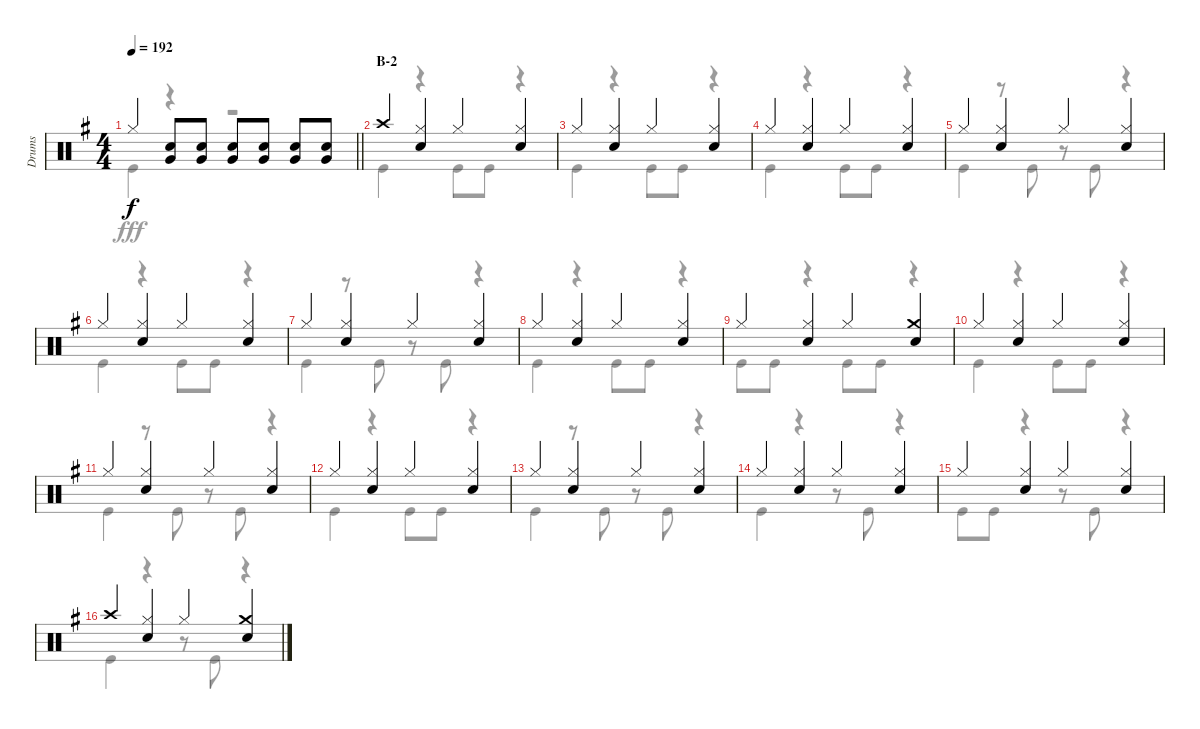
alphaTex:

\track ("Drums" "Drums") {instrument percussion}
\staff {score}
\articulation defaults
\voice
\ts (4 4)
\tempo 192
\clef neutral
\barLineRight lightlight
\ks g "Hi-Hat (closed)".4{dy f}
("Snare (hit) 2" "Very Low Tom (hit)").8 ("Snare (hit) 2" "Very Low Tom (hit)").8 ("Snare (hit) 2" "Very Low Tom (hit)").8 ("Snare (hit) 2" "Very Low Tom (hit)").8 ("Snare (hit) 2" "Very Low Tom (hit)").8 ("Snare (hit) 2" "Very Low Tom (hit)").8 |
\section ("" "B-2")
"Crash high (hit)".4 ("Hi-Hat (closed)" "Snare (hit) 2").4 "Hi-Hat (closed)".4 ("Hi-Hat (closed)" "Snare (hit) 2").4 |
"Hi-Hat (closed)".4 ("Hi-Hat (closed)" "Snare (hit) 2").4 "Hi-Hat (closed)".4 ("Hi-Hat (closed)" "Snare (hit) 2").4 |
"Hi-Hat (closed)".4 ("Hi-Hat (closed)" "Snare (hit) 2").4 "Hi-Hat (closed)".4 ("Hi-Hat (closed)" "Snare (hit) 2").4 |
"Hi-Hat (closed)".4 ("Hi-Hat (closed)" "Snare (hit) 2").4 "Hi-Hat (closed)".4 ("Hi-Hat (closed)" "Snare (hit) 2").4 |
"Hi-Hat (closed)".4 ("Hi-Hat (closed)" "Snare (hit) 2").4 "Hi-Hat (closed)".4 ("Hi-Hat (closed)" "Snare (hit) 2").4 |
"Hi-Hat (closed)".4 ("Hi-Hat (closed)" "Snare (hit) 2").4 "Hi-Hat (closed)".4 ("Hi-Hat (closed)" "Snare (hit) 2").4 |
"Hi-Hat (closed)".4 ("Hi-Hat (closed)" "Snare (hit) 2").4 "Hi-Hat (closed)".4 ("Hi-Hat (closed)" "Snare (hit) 2").4 |
"Hi-Hat (closed)".4 ("Hi-Hat (closed)" "Snare (hit) 2").4 "Hi-Hat (closed)".4 ("Crash medium (hit)" "Snare (hit) 2").4 |
"Hi-Hat (closed)".4 ("Hi-Hat (closed)" "Snare (hit) 2").4 "Hi-Hat (closed)".4 ("Hi-Hat (closed)" "Snare (hit) 2").4 |
"Hi-Hat (closed)".4 ("Hi-Hat (closed)" "Snare (hit) 2").4 "Hi-Hat (closed)".4 ("Hi-Hat (closed)" "Snare (hit) 2").4 |
"Hi-Hat (closed)".4 ("Hi-Hat (closed)" "Snare (hit) 2").4 "Hi-Hat (closed)".4 ("Hi-Hat (closed)" "Snare (hit) 2").4 |
"Hi-Hat (closed)".4 ("Hi-Hat (closed)" "Snare (hit) 2").4 "Hi-Hat (closed)".4 ("Hi-Hat (closed)" "Snare (hit) 2").4 |
"Hi-Hat (closed)".4 ("Hi-Hat (closed)" "Snare (hit) 2").4 "Hi-Hat (closed)".4 ("Hi-Hat (closed)" "Snare (hit) 2").4 |
"Hi-Hat (closed)".4 ("Hi-Hat (closed)" "Snare (hit) 2").4 "Hi-Hat (closed)".4 ("Hi-Hat (closed)" "Snare (hit) 2").4 |
"Crash high (hit)".4 ("Hi-Hat (closed)" "Snare (hit) 2").4 "Hi-Hat (closed)".4 ("Crash medium (hit)" "Snare (hit) 2").4
\voice
\clef neutral
\ottava regular
\simile none
\barLineRight lightlight
\ks g "Kick (hit)".4{dy fff}
r.4 r.2 |
"Kick (hit)".4 r.4 "Kick (hit)".8 "Kick (hit)".8 r.4 |
"Kick (hit)".4 r.4 "Kick (hit)".8 "Kick (hit)".8 r.4 |
"Kick (hit)".4 r.4 "Kick (hit)".8 "Kick (hit)".8 r.4 |
"Kick (hit)".4 r.8 "Kick (hit)".8 r.8 "Kick (hit)".8 r.4 |
"Kick (hit)".4 r.4 "Kick (hit)".8 "Kick (hit)".8 r.4 |
"Kick (hit)".4 r.8 "Kick (hit)".8 r.8 "Kick (hit)".8 r.4 |
"Kick (hit)".4 r.4 "Kick (hit)".8 "Kick (hit)".8 r.4 |
"Kick (hit)".8 "Kick (hit)".8 r.4 "Kick (hit)".8 "Kick (hit)".8 r.4 |
"Kick (hit)".4 r.4 "Kick (hit)".8 "Kick (hit)".8 r.4 |
"Kick (hit)".4 r.8 "Kick (hit)".8 r.8 "Kick (hit)".8 r.4 |
"Kick (hit)".4 r.4 "Kick (hit)".8 "Kick (hit)".8 r.4 |
"Kick (hit)".4 r.8 "Kick (hit)".8 r.8 "Kick (hit)".8 r.4 |
"Kick (hit)".4 r.4 r.8 "Kick (hit)".8 r.4 |
"Kick (hit)".8 "Kick (hit)".8 r.4 r.8 "Kick (hit)".8 r.4 |
"Kick (hit)".4 r.4 r.8 "Kick (hit)".8 r.4
